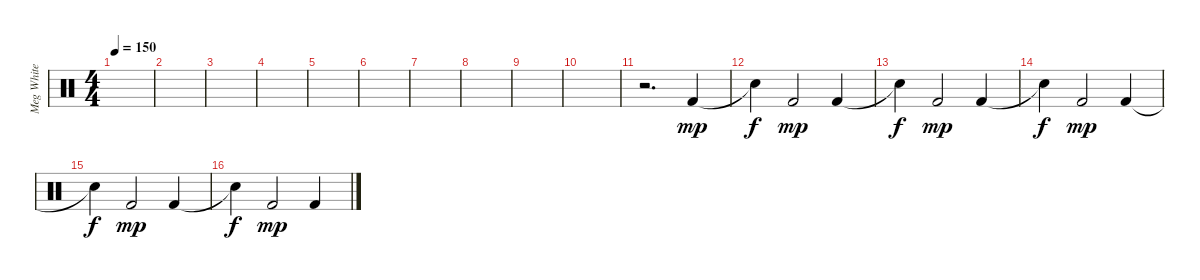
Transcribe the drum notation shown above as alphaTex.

\track ("Meg White" "Meg White") {instrument percussion}
\staff {score}
\articulation defaults
\ts (4 4)
\tempo 150
\clef neutral
\ks c
|
|
|
|
|
|
|
|
|
|
r.2{d} "Kick (hit) 2".4{dy mp} |
"Snare (hit)"{t}.4{dy f} "Kick (hit) 2".2{dy mp} "Kick (hit) 2".4 |
"Snare (hit)"{t}.4{dy f} "Kick (hit) 2".2{dy mp} "Kick (hit) 2".4 |
"Snare (hit)"{t}.4{dy f} "Kick (hit) 2".2{dy mp} "Kick (hit) 2".4 |
"Snare (hit)"{t}.4{dy f} "Kick (hit) 2".2{dy mp} "Kick (hit) 2".4 |
"Snare (hit)"{t}.4{dy f} "Kick (hit) 2".2{dy mp} "Kick (hit) 2".4
